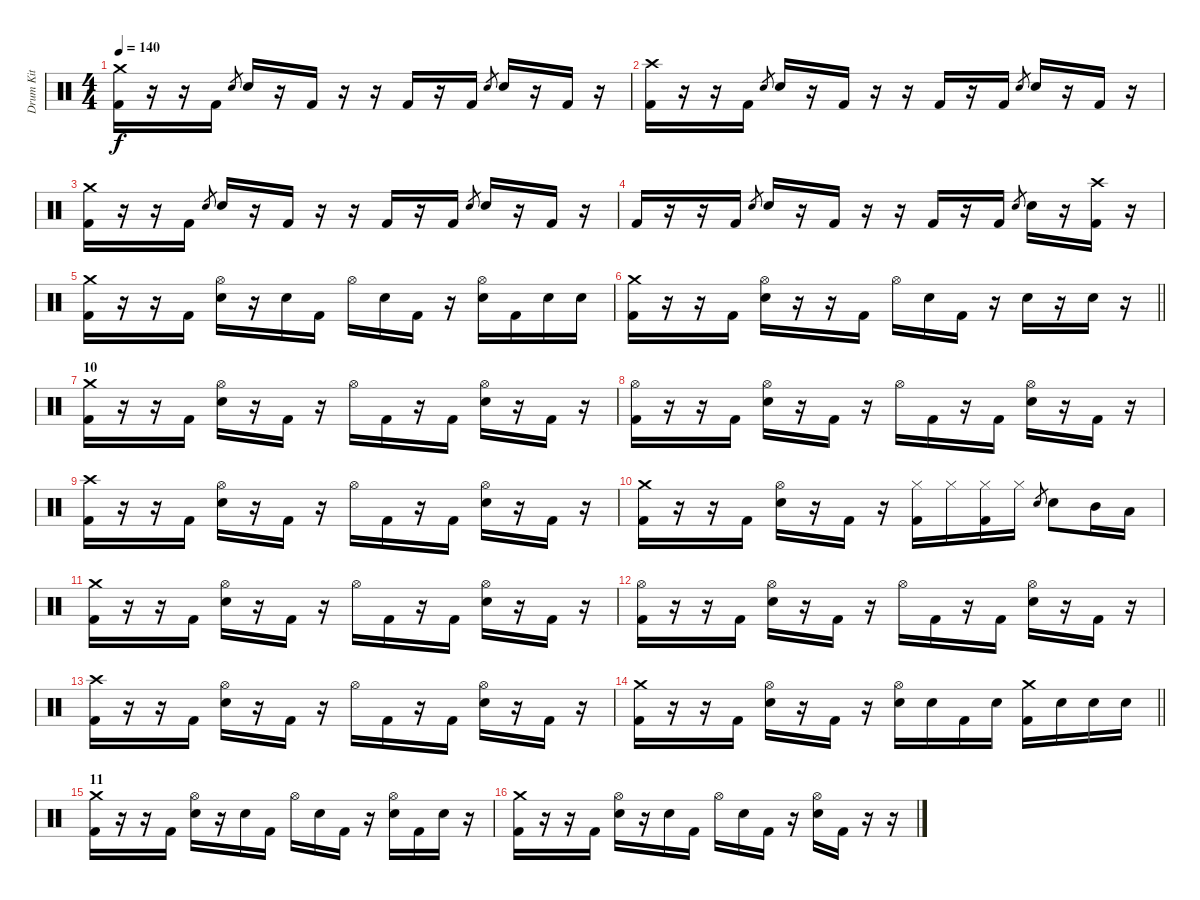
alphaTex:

\track ("Drum Kit" "Drum Kit") {instrument percussion}
\staff {score}
\articulation defaults
\ts (4 4)
\tempo 140
\clef neutral
\ks c
("Crash medium (hit)" "Kick (hit) 2").16{dy f} r.16 r.16 "Kick (hit) 2".16 "Electric Snare (hit)".8{gr} "Electric Snare (hit)".16 r.16 "Kick (hit) 2".16 r.16 r.16 "Kick (hit) 2".16 r.16 "Kick (hit) 2".16 "Electric Snare (hit)".8{gr} "Electric Snare (hit)".16 r.16 "Kick (hit) 2".16 r.16 |
("Crash high (hit)" "Kick (hit) 2").16 r.16 r.16 "Kick (hit) 2".16 "Electric Snare (hit)".8{gr} "Electric Snare (hit)".16 r.16 "Kick (hit) 2".16 r.16 r.16 "Kick (hit) 2".16 r.16 "Kick (hit) 2".16 "Electric Snare (hit)".8{gr} "Electric Snare (hit)".16 r.16 "Kick (hit) 2".16 r.16 |
("Crash medium (hit)" "Kick (hit) 2").16 r.16 r.16 "Kick (hit) 2".16 "Electric Snare (hit)".8{gr} "Electric Snare (hit)".16 r.16 "Kick (hit) 2".16 r.16 r.16 "Kick (hit) 2".16 r.16 "Kick (hit) 2".16 "Electric Snare (hit)".8{gr} "Electric Snare (hit)".16 r.16 "Kick (hit) 2".16 r.16 |
"Kick (hit) 2".16 r.16 r.16 "Kick (hit) 2".16 "Electric Snare (hit)".8{gr} "Electric Snare (hit)".16 r.16 "Kick (hit) 2".16 r.16 r.16 "Kick (hit) 2".16 r.16 "Kick (hit) 2".16 "Electric Snare (hit)".8{gr} "Electric Snare (hit)".16 r.16 ("Crash high (hit)" "Kick (hit) 2").16 r.16 |
("Crash medium (hit)" "Kick (hit) 2").16 r.16 r.16 "Kick (hit) 2".16 ("Hi-Hat (open)" "Electric Snare (hit)").16 r.16 "Electric Snare (hit)".16 "Kick (hit) 2".16 "Hi-Hat (open)".16 "Electric Snare (hit)".16 "Kick (hit) 2".16 r.16 ("Hi-Hat (open)" "Electric Snare (hit)").16 "Kick (hit) 2".16 "Electric Snare (hit)".16 "Electric Snare (hit)".16 |
\barLineRight lightlight
("Crash medium (hit)" "Kick (hit) 2").16 r.16 r.16 "Kick (hit) 2".16 ("Hi-Hat (open)" "Electric Snare (hit)").16 r.16 r.16 "Kick (hit) 2".16 "Hi-Hat (open)".16 "Electric Snare (hit)".16 "Kick (hit) 2".16 r.16 "Electric Snare (hit)".16 r.16 "Electric Snare (hit)".16 r.16 |
\section ("" "10")
("Crash medium (hit)" "Kick (hit) 2").16 r.16 r.16 "Kick (hit) 2".16 ("Hi-Hat (open)" "Electric Snare (hit)").16 r.16 "Kick (hit) 2".16 r.16 "Hi-Hat (open)".16 "Kick (hit) 2".16 r.16 "Kick (hit) 2".16 ("Hi-Hat (open)" "Electric Snare (hit)").16 r.16 "Kick (hit) 2".16 r.16 |
("Hi-Hat (open)" "Kick (hit) 2").16 r.16 r.16 "Kick (hit) 2".16 ("Hi-Hat (open)" "Electric Snare (hit)").16 r.16 "Kick (hit) 2".16 r.16 "Hi-Hat (open)".16 "Kick (hit) 2".16 r.16 "Kick (hit) 2".16 ("Hi-Hat (open)" "Electric Snare (hit)").16 r.16 "Kick (hit) 2".16 r.16 |
("Crash high (hit)" "Kick (hit) 2").16 r.16 r.16 "Kick (hit) 2".16 ("Hi-Hat (open)" "Electric Snare (hit)").16 r.16 "Kick (hit) 2".16 r.16 "Hi-Hat (open)".16 "Kick (hit) 2".16 r.16 "Kick (hit) 2".16 ("Hi-Hat (open)" "Electric Snare (hit)").16 r.16 "Kick (hit) 2".16 r.16 |
("Crash medium (hit)" "Kick (hit) 2").16 r.16 r.16 "Kick (hit) 2".16 ("Hi-Hat (open)" "Electric Snare (hit)").16 r.16 "Kick (hit) 2".16 r.16 ("Hi-Hat (closed)" "Kick (hit) 2").16 "Hi-Hat (closed)".16 ("Hi-Hat (closed)" "Kick (hit) 2").16 "Hi-Hat (closed)".16 "Electric Snare (hit)".8{gr} "Electric Snare (hit)".8 "Mid Tom (hit)".16 "Low Tom (hit)".16 |
("Crash medium (hit)" "Kick (hit) 2").16 r.16 r.16 "Kick (hit) 2".16 ("Hi-Hat (open)" "Electric Snare (hit)").16 r.16 "Kick (hit) 2".16 r.16 "Hi-Hat (open)".16 "Kick (hit) 2".16 r.16 "Kick (hit) 2".16 ("Hi-Hat (open)" "Electric Snare (hit)").16 r.16 "Kick (hit) 2".16 r.16 |
("Hi-Hat (open)" "Kick (hit) 2").16 r.16 r.16 "Kick (hit) 2".16 ("Hi-Hat (open)" "Electric Snare (hit)").16 r.16 "Kick (hit) 2".16 r.16 "Hi-Hat (open)".16 "Kick (hit) 2".16 r.16 "Kick (hit) 2".16 ("Hi-Hat (open)" "Electric Snare (hit)").16 r.16 "Kick (hit) 2".16 r.16 |
("Crash high (hit)" "Kick (hit) 2").16 r.16 r.16 "Kick (hit) 2".16 ("Hi-Hat (open)" "Electric Snare (hit)").16 r.16 "Kick (hit) 2".16 r.16 "Hi-Hat (open)".16 "Kick (hit) 2".16 r.16 "Kick (hit) 2".16 ("Hi-Hat (open)" "Electric Snare (hit)").16 r.16 "Kick (hit) 2".16 r.16 |
\barLineRight lightlight
("Crash medium (hit)" "Kick (hit) 2").16 r.16 r.16 "Kick (hit) 2".16 ("Hi-Hat (open)" "Electric Snare (hit)").16 r.16 "Kick (hit) 2".16 r.16 ("Hi-Hat (open)" "Electric Snare (hit)").16 "Electric Snare (hit)".16 "Kick (hit) 2".16 "Electric Snare (hit)".16 ("Crash medium (hit)" "Kick (hit) 2").16 "Electric Snare (hit)".16 "Electric Snare (hit)".16 "Electric Snare (hit)".16 |
\section ("" "11")
("Crash medium (hit)" "Kick (hit) 2").16 r.16 r.16 "Kick (hit) 2".16 ("Hi-Hat (open)" "Electric Snare (hit)").16 r.16 "Electric Snare (hit)".16 "Kick (hit) 2".16 "Hi-Hat (open)".16 "Electric Snare (hit)".16 "Kick (hit) 2".16 r.16 ("Hi-Hat (open)" "Electric Snare (hit)").16 "Kick (hit) 2".16 "Electric Snare (hit)".16 r.16 |
("Crash medium (hit)" "Kick (hit) 2").16 r.16 r.16 "Kick (hit) 2".16 ("Hi-Hat (open)" "Electric Snare (hit)").16 r.16 "Electric Snare (hit)".16 "Kick (hit) 2".16 "Hi-Hat (open)".16 "Electric Snare (hit)".16 "Kick (hit) 2".16 r.16 ("Hi-Hat (open)" "Electric Snare (hit)").16 "Kick (hit) 2".16 r.16 r.16
